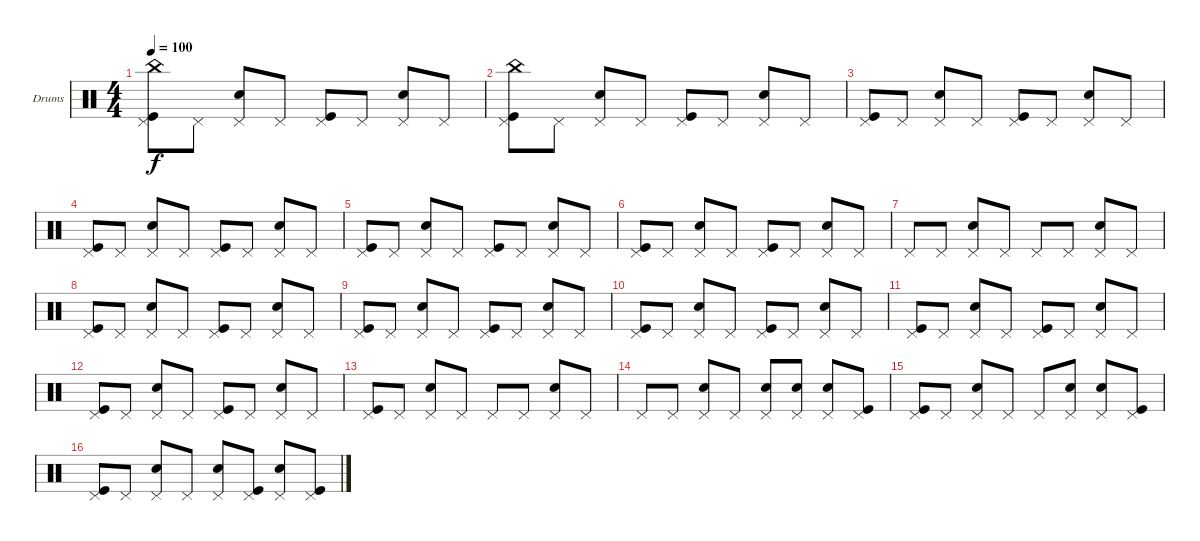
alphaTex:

\defaultSystemsLayout 4
\bracketExtendMode groupsimilarinstruments
\firstSystemTrackNameOrientation horizontal
\otherSystemsTrackNameOrientation horizontal
\track ("Drumkit" "Drums") {instrument percussion}
\staff {score}
\articulation defaults
\ts (4 4)
\tempo 100
\clef neutral
\ks c
("Pedal Hi-Hat (hit)" "Kick (hit)" "China (hit)").8{dy f} "Pedal Hi-Hat (hit)".8 ("Pedal Hi-Hat (hit)" "Snare (hit) 2").8 "Pedal Hi-Hat (hit)".8 ("Pedal Hi-Hat (hit)" "Kick (hit)").8 "Pedal Hi-Hat (hit)".8 ("Pedal Hi-Hat (hit)" "Snare (hit) 2").8 "Pedal Hi-Hat (hit)".8 |
("Pedal Hi-Hat (hit)" "Kick (hit)" "China (hit)").8 "Pedal Hi-Hat (hit)".8 ("Pedal Hi-Hat (hit)" "Snare (hit) 2").8 "Pedal Hi-Hat (hit)".8 ("Pedal Hi-Hat (hit)" "Kick (hit)").8 "Pedal Hi-Hat (hit)".8 ("Pedal Hi-Hat (hit)" "Snare (hit) 2").8 "Pedal Hi-Hat (hit)".8 |
("Pedal Hi-Hat (hit)" "Kick (hit)").8 "Pedal Hi-Hat (hit)".8 ("Pedal Hi-Hat (hit)" "Snare (hit) 2").8 "Pedal Hi-Hat (hit)".8 ("Pedal Hi-Hat (hit)" "Kick (hit)").8 "Pedal Hi-Hat (hit)".8 ("Pedal Hi-Hat (hit)" "Snare (hit) 2").8 "Pedal Hi-Hat (hit)".8 |
("Pedal Hi-Hat (hit)" "Kick (hit)").8 "Pedal Hi-Hat (hit)".8 ("Pedal Hi-Hat (hit)" "Snare (hit) 2").8 "Pedal Hi-Hat (hit)".8 ("Pedal Hi-Hat (hit)" "Kick (hit)").8 "Pedal Hi-Hat (hit)".8 ("Pedal Hi-Hat (hit)" "Snare (hit) 2").8 "Pedal Hi-Hat (hit)".8 |
("Pedal Hi-Hat (hit)" "Kick (hit)").8 "Pedal Hi-Hat (hit)".8 ("Pedal Hi-Hat (hit)" "Snare (hit) 2").8 "Pedal Hi-Hat (hit)".8 ("Pedal Hi-Hat (hit)" "Kick (hit)").8 "Pedal Hi-Hat (hit)".8 ("Pedal Hi-Hat (hit)" "Snare (hit) 2").8 "Pedal Hi-Hat (hit)".8 |
("Pedal Hi-Hat (hit)" "Kick (hit)").8 "Pedal Hi-Hat (hit)".8 ("Pedal Hi-Hat (hit)" "Snare (hit) 2").8 "Pedal Hi-Hat (hit)".8 ("Pedal Hi-Hat (hit)" "Kick (hit)").8 "Pedal Hi-Hat (hit)".8 ("Pedal Hi-Hat (hit)" "Snare (hit) 2").8 "Pedal Hi-Hat (hit)".8 |
"Pedal Hi-Hat (hit)".8 "Pedal Hi-Hat (hit)".8 ("Pedal Hi-Hat (hit)" "Snare (hit) 2").8 "Pedal Hi-Hat (hit)".8 "Pedal Hi-Hat (hit)".8 "Pedal Hi-Hat (hit)".8 ("Pedal Hi-Hat (hit)" "Snare (hit) 2").8 "Pedal Hi-Hat (hit)".8 |
("Pedal Hi-Hat (hit)" "Kick (hit)").8 "Pedal Hi-Hat (hit)".8 ("Pedal Hi-Hat (hit)" "Snare (hit) 2").8 "Pedal Hi-Hat (hit)".8 ("Pedal Hi-Hat (hit)" "Kick (hit)").8 "Pedal Hi-Hat (hit)".8 ("Pedal Hi-Hat (hit)" "Snare (hit) 2").8 "Pedal Hi-Hat (hit)".8 |
("Pedal Hi-Hat (hit)" "Kick (hit)").8 "Pedal Hi-Hat (hit)".8 ("Pedal Hi-Hat (hit)" "Snare (hit) 2").8 "Pedal Hi-Hat (hit)".8 ("Pedal Hi-Hat (hit)" "Kick (hit)").8 "Pedal Hi-Hat (hit)".8 ("Pedal Hi-Hat (hit)" "Snare (hit) 2").8 "Pedal Hi-Hat (hit)".8 |
("Pedal Hi-Hat (hit)" "Kick (hit)").8 "Pedal Hi-Hat (hit)".8 ("Pedal Hi-Hat (hit)" "Snare (hit) 2").8 "Pedal Hi-Hat (hit)".8 ("Pedal Hi-Hat (hit)" "Kick (hit)").8 "Pedal Hi-Hat (hit)".8 ("Pedal Hi-Hat (hit)" "Snare (hit) 2").8 "Pedal Hi-Hat (hit)".8 |
("Pedal Hi-Hat (hit)" "Kick (hit)").8 "Pedal Hi-Hat (hit)".8 ("Pedal Hi-Hat (hit)" "Snare (hit) 2").8 "Pedal Hi-Hat (hit)".8 ("Pedal Hi-Hat (hit)" "Kick (hit)").8 "Pedal Hi-Hat (hit)".8 ("Pedal Hi-Hat (hit)" "Snare (hit) 2").8 "Pedal Hi-Hat (hit)".8 |
("Pedal Hi-Hat (hit)" "Kick (hit)").8 "Pedal Hi-Hat (hit)".8 ("Pedal Hi-Hat (hit)" "Snare (hit) 2").8 "Pedal Hi-Hat (hit)".8 ("Pedal Hi-Hat (hit)" "Kick (hit)").8 "Pedal Hi-Hat (hit)".8 ("Pedal Hi-Hat (hit)" "Snare (hit) 2").8 "Pedal Hi-Hat (hit)".8 |
("Pedal Hi-Hat (hit)" "Kick (hit)").8 "Pedal Hi-Hat (hit)".8 ("Pedal Hi-Hat (hit)" "Snare (hit) 2").8 "Pedal Hi-Hat (hit)".8 "Pedal Hi-Hat (hit)".8 "Pedal Hi-Hat (hit)".8 ("Pedal Hi-Hat (hit)" "Snare (hit) 2").8 "Pedal Hi-Hat (hit)".8 |
"Pedal Hi-Hat (hit)".8 "Pedal Hi-Hat (hit)".8 ("Pedal Hi-Hat (hit)" "Snare (hit) 2").8 "Pedal Hi-Hat (hit)".8 ("Pedal Hi-Hat (hit)" "Snare (hit) 2").8 ("Pedal Hi-Hat (hit)" "Snare (hit) 2").8 ("Pedal Hi-Hat (hit)" "Snare (hit) 2").8 ("Pedal Hi-Hat (hit)" "Kick (hit)").8 |
("Pedal Hi-Hat (hit)" "Kick (hit)").8 "Pedal Hi-Hat (hit)".8 ("Pedal Hi-Hat (hit)" "Snare (hit) 2").8 "Pedal Hi-Hat (hit)".8 "Pedal Hi-Hat (hit)".8 ("Pedal Hi-Hat (hit)" "Snare (hit) 2").8 ("Pedal Hi-Hat (hit)" "Snare (hit) 2").8 ("Pedal Hi-Hat (hit)" "Kick (hit)").8 |
("Pedal Hi-Hat (hit)" "Kick (hit)").8 "Pedal Hi-Hat (hit)".8 ("Pedal Hi-Hat (hit)" "Snare (hit) 2").8 "Pedal Hi-Hat (hit)".8 ("Pedal Hi-Hat (hit)" "Snare (hit) 2").8 ("Pedal Hi-Hat (hit)" "Kick (hit)").8 ("Pedal Hi-Hat (hit)" "Snare (hit) 2").8 ("Pedal Hi-Hat (hit)" "Kick (hit)").8
